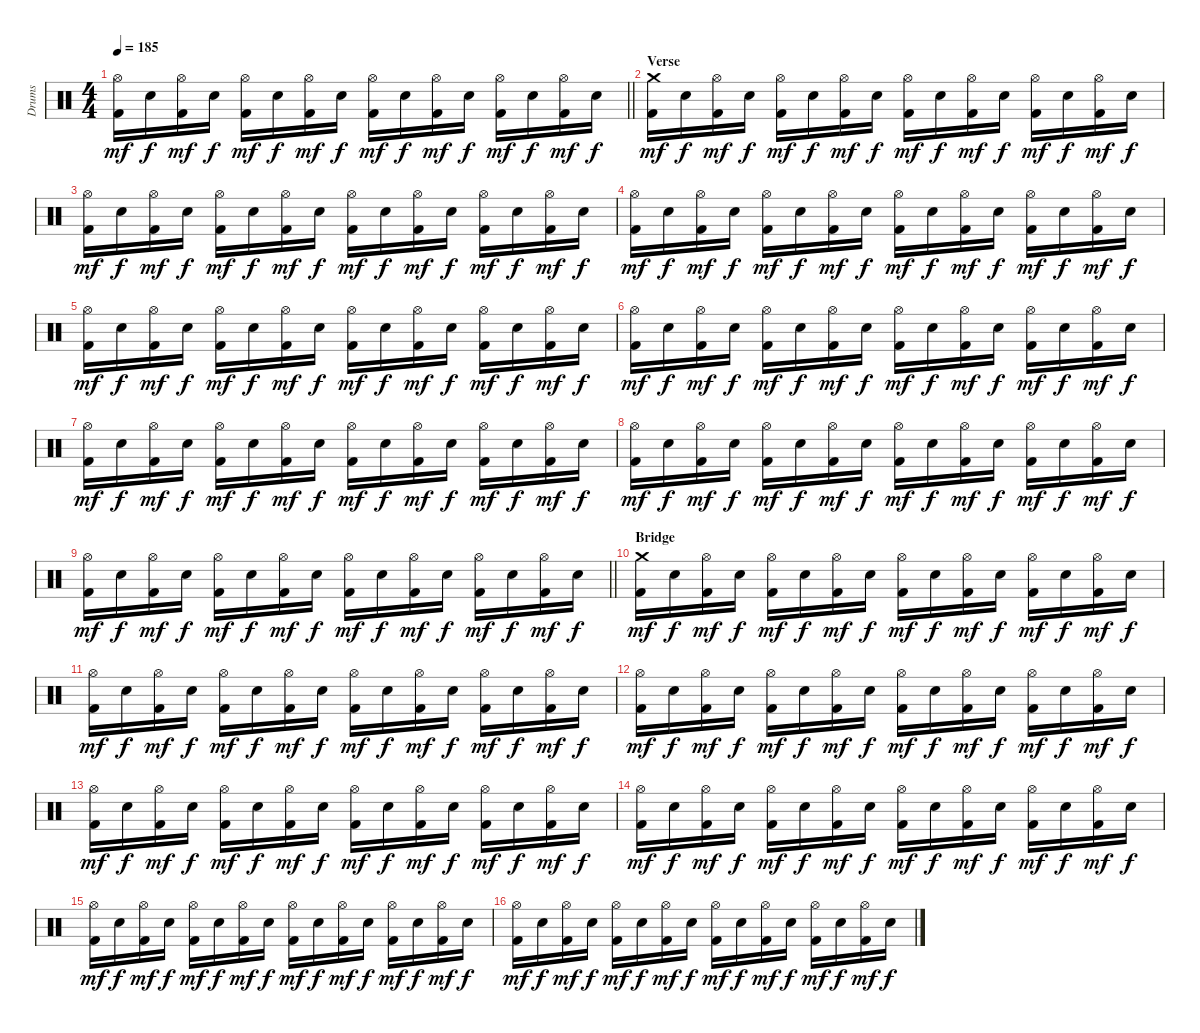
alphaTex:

\track ("Drums" "Drums") {instrument percussion}
\staff {score}
\articulation defaults
\ts (4 4)
\tempo 185
\clef neutral
\barLineRight lightlight
\ks c
("Hi-Hat (open)" "Kick (hit) 2").16{dy mf} "Electric Snare (hit)".16{dy f} ("Hi-Hat (open)" "Kick (hit) 2").16{dy mf} "Electric Snare (hit)".16{dy f} ("Hi-Hat (open)" "Kick (hit) 2").16{dy mf} "Electric Snare (hit)".16{dy f} ("Hi-Hat (open)" "Kick (hit) 2").16{dy mf} "Electric Snare (hit)".16{dy f} ("Hi-Hat (open)" "Kick (hit) 2").16{dy mf} "Electric Snare (hit)".16{dy f} ("Hi-Hat (open)" "Kick (hit) 2").16{dy mf} "Electric Snare (hit)".16{dy f} ("Hi-Hat (open)" "Kick (hit) 2").16{dy mf} "Electric Snare (hit)".16{dy f} ("Hi-Hat (open)" "Kick (hit) 2").16{dy mf} "Electric Snare (hit)".16{dy f} |
\section ("" "Verse")
("Crash medium (hit)" "Kick (hit) 2").16{dy mf} "Electric Snare (hit)".16{dy f} ("Hi-Hat (open)" "Kick (hit) 2").16{dy mf} "Electric Snare (hit)".16{dy f} ("Hi-Hat (open)" "Kick (hit) 2").16{dy mf} "Electric Snare (hit)".16{dy f} ("Hi-Hat (open)" "Kick (hit) 2").16{dy mf} "Electric Snare (hit)".16{dy f} ("Hi-Hat (open)" "Kick (hit) 2").16{dy mf} "Electric Snare (hit)".16{dy f} ("Hi-Hat (open)" "Kick (hit) 2").16{dy mf} "Electric Snare (hit)".16{dy f} ("Hi-Hat (open)" "Kick (hit) 2").16{dy mf} "Electric Snare (hit)".16{dy f} ("Hi-Hat (open)" "Kick (hit) 2").16{dy mf} "Electric Snare (hit)".16{dy f} |
("Hi-Hat (open)" "Kick (hit) 2").16{dy mf} "Electric Snare (hit)".16{dy f} ("Hi-Hat (open)" "Kick (hit) 2").16{dy mf} "Electric Snare (hit)".16{dy f} ("Hi-Hat (open)" "Kick (hit) 2").16{dy mf} "Electric Snare (hit)".16{dy f} ("Hi-Hat (open)" "Kick (hit) 2").16{dy mf} "Electric Snare (hit)".16{dy f} ("Hi-Hat (open)" "Kick (hit) 2").16{dy mf} "Electric Snare (hit)".16{dy f} ("Hi-Hat (open)" "Kick (hit) 2").16{dy mf} "Electric Snare (hit)".16{dy f} ("Hi-Hat (open)" "Kick (hit) 2").16{dy mf} "Electric Snare (hit)".16{dy f} ("Hi-Hat (open)" "Kick (hit) 2").16{dy mf} "Electric Snare (hit)".16{dy f} |
("Hi-Hat (open)" "Kick (hit) 2").16{dy mf} "Electric Snare (hit)".16{dy f} ("Hi-Hat (open)" "Kick (hit) 2").16{dy mf} "Electric Snare (hit)".16{dy f} ("Hi-Hat (open)" "Kick (hit) 2").16{dy mf} "Electric Snare (hit)".16{dy f} ("Hi-Hat (open)" "Kick (hit) 2").16{dy mf} "Electric Snare (hit)".16{dy f} ("Hi-Hat (open)" "Kick (hit) 2").16{dy mf} "Electric Snare (hit)".16{dy f} ("Hi-Hat (open)" "Kick (hit) 2").16{dy mf} "Electric Snare (hit)".16{dy f} ("Hi-Hat (open)" "Kick (hit) 2").16{dy mf} "Electric Snare (hit)".16{dy f} ("Hi-Hat (open)" "Kick (hit) 2").16{dy mf} "Electric Snare (hit)".16{dy f} |
("Hi-Hat (open)" "Kick (hit) 2").16{dy mf} "Electric Snare (hit)".16{dy f} ("Hi-Hat (open)" "Kick (hit) 2").16{dy mf} "Electric Snare (hit)".16{dy f} ("Hi-Hat (open)" "Kick (hit) 2").16{dy mf} "Electric Snare (hit)".16{dy f} ("Hi-Hat (open)" "Kick (hit) 2").16{dy mf} "Electric Snare (hit)".16{dy f} ("Hi-Hat (open)" "Kick (hit) 2").16{dy mf} "Electric Snare (hit)".16{dy f} ("Hi-Hat (open)" "Kick (hit) 2").16{dy mf} "Electric Snare (hit)".16{dy f} ("Hi-Hat (open)" "Kick (hit) 2").16{dy mf} "Electric Snare (hit)".16{dy f} ("Hi-Hat (open)" "Kick (hit) 2").16{dy mf} "Electric Snare (hit)".16{dy f} |
("Hi-Hat (open)" "Kick (hit) 2").16{dy mf} "Electric Snare (hit)".16{dy f} ("Hi-Hat (open)" "Kick (hit) 2").16{dy mf} "Electric Snare (hit)".16{dy f} ("Hi-Hat (open)" "Kick (hit) 2").16{dy mf} "Electric Snare (hit)".16{dy f} ("Hi-Hat (open)" "Kick (hit) 2").16{dy mf} "Electric Snare (hit)".16{dy f} ("Hi-Hat (open)" "Kick (hit) 2").16{dy mf} "Electric Snare (hit)".16{dy f} ("Hi-Hat (open)" "Kick (hit) 2").16{dy mf} "Electric Snare (hit)".16{dy f} ("Hi-Hat (open)" "Kick (hit) 2").16{dy mf} "Electric Snare (hit)".16{dy f} ("Hi-Hat (open)" "Kick (hit) 2").16{dy mf} "Electric Snare (hit)".16{dy f} |
("Hi-Hat (open)" "Kick (hit) 2").16{dy mf} "Electric Snare (hit)".16{dy f} ("Hi-Hat (open)" "Kick (hit) 2").16{dy mf} "Electric Snare (hit)".16{dy f} ("Hi-Hat (open)" "Kick (hit) 2").16{dy mf} "Electric Snare (hit)".16{dy f} ("Hi-Hat (open)" "Kick (hit) 2").16{dy mf} "Electric Snare (hit)".16{dy f} ("Hi-Hat (open)" "Kick (hit) 2").16{dy mf} "Electric Snare (hit)".16{dy f} ("Hi-Hat (open)" "Kick (hit) 2").16{dy mf} "Electric Snare (hit)".16{dy f} ("Hi-Hat (open)" "Kick (hit) 2").16{dy mf} "Electric Snare (hit)".16{dy f} ("Hi-Hat (open)" "Kick (hit) 2").16{dy mf} "Electric Snare (hit)".16{dy f} |
("Hi-Hat (open)" "Kick (hit) 2").16{dy mf} "Electric Snare (hit)".16{dy f} ("Hi-Hat (open)" "Kick (hit) 2").16{dy mf} "Electric Snare (hit)".16{dy f} ("Hi-Hat (open)" "Kick (hit) 2").16{dy mf} "Electric Snare (hit)".16{dy f} ("Hi-Hat (open)" "Kick (hit) 2").16{dy mf} "Electric Snare (hit)".16{dy f} ("Hi-Hat (open)" "Kick (hit) 2").16{dy mf} "Electric Snare (hit)".16{dy f} ("Hi-Hat (open)" "Kick (hit) 2").16{dy mf} "Electric Snare (hit)".16{dy f} ("Hi-Hat (open)" "Kick (hit) 2").16{dy mf} "Electric Snare (hit)".16{dy f} ("Hi-Hat (open)" "Kick (hit) 2").16{dy mf} "Electric Snare (hit)".16{dy f} |
\barLineRight lightlight
("Hi-Hat (open)" "Kick (hit) 2").16{dy mf} "Electric Snare (hit)".16{dy f} ("Hi-Hat (open)" "Kick (hit) 2").16{dy mf} "Electric Snare (hit)".16{dy f} ("Hi-Hat (open)" "Kick (hit) 2").16{dy mf} "Electric Snare (hit)".16{dy f} ("Hi-Hat (open)" "Kick (hit) 2").16{dy mf} "Electric Snare (hit)".16{dy f} ("Hi-Hat (open)" "Kick (hit) 2").16{dy mf} "Electric Snare (hit)".16{dy f} ("Hi-Hat (open)" "Kick (hit) 2").16{dy mf} "Electric Snare (hit)".16{dy f} ("Hi-Hat (open)" "Kick (hit) 2").16{dy mf} "Electric Snare (hit)".16{dy f} ("Hi-Hat (open)" "Kick (hit) 2").16{dy mf} "Electric Snare (hit)".16{dy f} |
\section ("" "Bridge")
("Crash medium (hit)" "Kick (hit) 2").16{dy mf} "Electric Snare (hit)".16{dy f} ("Hi-Hat (open)" "Kick (hit) 2").16{dy mf} "Electric Snare (hit)".16{dy f} ("Hi-Hat (open)" "Kick (hit) 2").16{dy mf} "Electric Snare (hit)".16{dy f} ("Hi-Hat (open)" "Kick (hit) 2").16{dy mf} "Electric Snare (hit)".16{dy f} ("Hi-Hat (open)" "Kick (hit) 2").16{dy mf} "Electric Snare (hit)".16{dy f} ("Hi-Hat (open)" "Kick (hit) 2").16{dy mf} "Electric Snare (hit)".16{dy f} ("Hi-Hat (open)" "Kick (hit) 2").16{dy mf} "Electric Snare (hit)".16{dy f} ("Hi-Hat (open)" "Kick (hit) 2").16{dy mf} "Electric Snare (hit)".16{dy f} |
("Hi-Hat (open)" "Kick (hit) 2").16{dy mf} "Electric Snare (hit)".16{dy f} ("Hi-Hat (open)" "Kick (hit) 2").16{dy mf} "Electric Snare (hit)".16{dy f} ("Hi-Hat (open)" "Kick (hit) 2").16{dy mf} "Electric Snare (hit)".16{dy f} ("Hi-Hat (open)" "Kick (hit) 2").16{dy mf} "Electric Snare (hit)".16{dy f} ("Hi-Hat (open)" "Kick (hit) 2").16{dy mf} "Electric Snare (hit)".16{dy f} ("Hi-Hat (open)" "Kick (hit) 2").16{dy mf} "Electric Snare (hit)".16{dy f} ("Hi-Hat (open)" "Kick (hit) 2").16{dy mf} "Electric Snare (hit)".16{dy f} ("Hi-Hat (open)" "Kick (hit) 2").16{dy mf} "Electric Snare (hit)".16{dy f} |
("Hi-Hat (open)" "Kick (hit) 2").16{dy mf} "Electric Snare (hit)".16{dy f} ("Hi-Hat (open)" "Kick (hit) 2").16{dy mf} "Electric Snare (hit)".16{dy f} ("Hi-Hat (open)" "Kick (hit) 2").16{dy mf} "Electric Snare (hit)".16{dy f} ("Hi-Hat (open)" "Kick (hit) 2").16{dy mf} "Electric Snare (hit)".16{dy f} ("Hi-Hat (open)" "Kick (hit) 2").16{dy mf} "Electric Snare (hit)".16{dy f} ("Hi-Hat (open)" "Kick (hit) 2").16{dy mf} "Electric Snare (hit)".16{dy f} ("Hi-Hat (open)" "Kick (hit) 2").16{dy mf} "Electric Snare (hit)".16{dy f} ("Hi-Hat (open)" "Kick (hit) 2").16{dy mf} "Electric Snare (hit)".16{dy f} |
("Hi-Hat (open)" "Kick (hit) 2").16{dy mf} "Electric Snare (hit)".16{dy f} ("Hi-Hat (open)" "Kick (hit) 2").16{dy mf} "Electric Snare (hit)".16{dy f} ("Hi-Hat (open)" "Kick (hit) 2").16{dy mf} "Electric Snare (hit)".16{dy f} ("Hi-Hat (open)" "Kick (hit) 2").16{dy mf} "Electric Snare (hit)".16{dy f} ("Hi-Hat (open)" "Kick (hit) 2").16{dy mf} "Electric Snare (hit)".16{dy f} ("Hi-Hat (open)" "Kick (hit) 2").16{dy mf} "Electric Snare (hit)".16{dy f} ("Hi-Hat (open)" "Kick (hit) 2").16{dy mf} "Electric Snare (hit)".16{dy f} ("Hi-Hat (open)" "Kick (hit) 2").16{dy mf} "Electric Snare (hit)".16{dy f} |
("Hi-Hat (open)" "Kick (hit) 2").16{dy mf} "Electric Snare (hit)".16{dy f} ("Hi-Hat (open)" "Kick (hit) 2").16{dy mf} "Electric Snare (hit)".16{dy f} ("Hi-Hat (open)" "Kick (hit) 2").16{dy mf} "Electric Snare (hit)".16{dy f} ("Hi-Hat (open)" "Kick (hit) 2").16{dy mf} "Electric Snare (hit)".16{dy f} ("Hi-Hat (open)" "Kick (hit) 2").16{dy mf} "Electric Snare (hit)".16{dy f} ("Hi-Hat (open)" "Kick (hit) 2").16{dy mf} "Electric Snare (hit)".16{dy f} ("Hi-Hat (open)" "Kick (hit) 2").16{dy mf} "Electric Snare (hit)".16{dy f} ("Hi-Hat (open)" "Kick (hit) 2").16{dy mf} "Electric Snare (hit)".16{dy f} |
("Hi-Hat (open)" "Kick (hit) 2").16{dy mf} "Electric Snare (hit)".16{dy f} ("Hi-Hat (open)" "Kick (hit) 2").16{dy mf} "Electric Snare (hit)".16{dy f} ("Hi-Hat (open)" "Kick (hit) 2").16{dy mf} "Electric Snare (hit)".16{dy f} ("Hi-Hat (open)" "Kick (hit) 2").16{dy mf} "Electric Snare (hit)".16{dy f} ("Hi-Hat (open)" "Kick (hit) 2").16{dy mf} "Electric Snare (hit)".16{dy f} ("Hi-Hat (open)" "Kick (hit) 2").16{dy mf} "Electric Snare (hit)".16{dy f} ("Hi-Hat (open)" "Kick (hit) 2").16{dy mf} "Electric Snare (hit)".16{dy f} ("Hi-Hat (open)" "Kick (hit) 2").16{dy mf} "Electric Snare (hit)".16{dy f} |
("Hi-Hat (open)" "Kick (hit) 2").16{dy mf} "Electric Snare (hit)".16{dy f} ("Hi-Hat (open)" "Kick (hit) 2").16{dy mf} "Electric Snare (hit)".16{dy f} ("Hi-Hat (open)" "Kick (hit) 2").16{dy mf} "Electric Snare (hit)".16{dy f} ("Hi-Hat (open)" "Kick (hit) 2").16{dy mf} "Electric Snare (hit)".16{dy f} ("Hi-Hat (open)" "Kick (hit) 2").16{dy mf} "Electric Snare (hit)".16{dy f} ("Hi-Hat (open)" "Kick (hit) 2").16{dy mf} "Electric Snare (hit)".16{dy f} ("Hi-Hat (open)" "Kick (hit) 2").16{dy mf} "Electric Snare (hit)".16{dy f} ("Hi-Hat (open)" "Kick (hit) 2").16{dy mf} "Electric Snare (hit)".16{dy f}
